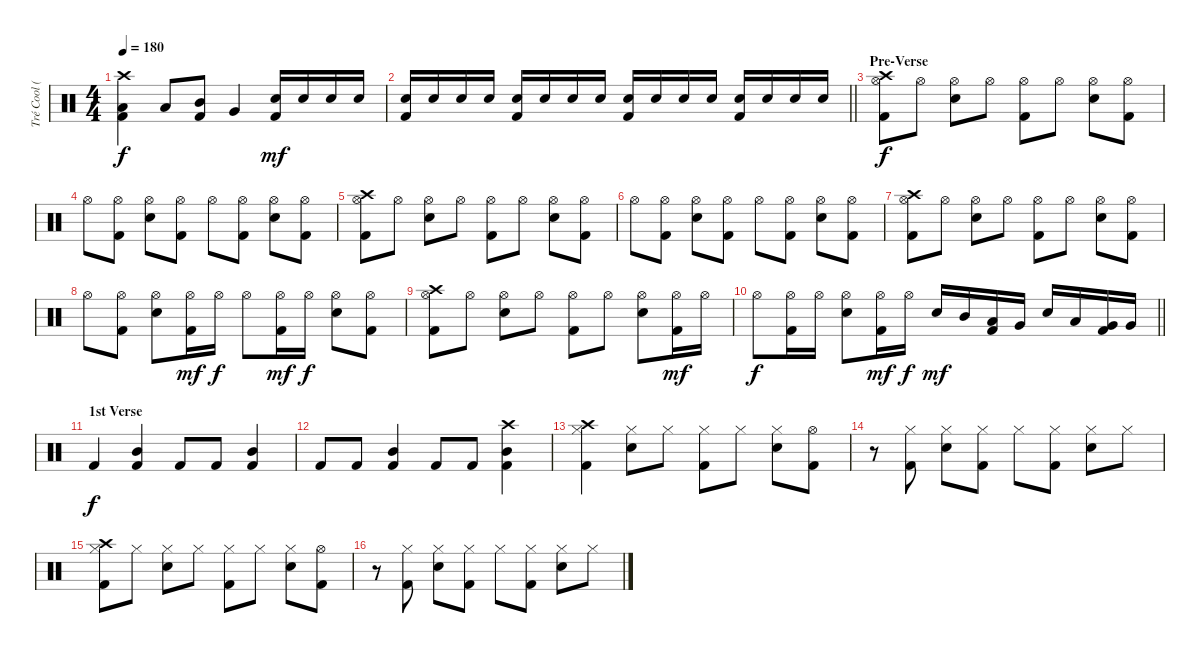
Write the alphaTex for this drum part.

\track ("Tré Cool (Drums)" "Tré Cool (") {instrument percussion}
\staff {score}
\articulation defaults
\ts (4 4)
\tempo 180
\clef neutral
\ks c
("Crash high (hit)" "Low Tom (hit)" "Kick (hit) 2").4{dy f} "Low Tom (hit)".8 ("Mid Tom (hit)" "Kick (hit) 2").8 "Very Low Tom (hit)".4 ("Electric Snare (hit)" "Kick (hit) 2").16{dy mf} "Electric Snare (hit)".16 "Electric Snare (hit)".16 "Electric Snare (hit)".16 |
\barLineRight lightlight
("Electric Snare (hit)" "Kick (hit) 2").16 "Electric Snare (hit)".16 "Electric Snare (hit)".16 "Electric Snare (hit)".16 ("Electric Snare (hit)" "Kick (hit) 2").16 "Electric Snare (hit)".16 "Electric Snare (hit)".16 "Electric Snare (hit)".16 ("Electric Snare (hit)" "Kick (hit) 2").16 "Electric Snare (hit)".16 "Electric Snare (hit)".16 "Electric Snare (hit)".16 ("Electric Snare (hit)" "Kick (hit) 2").16 "Electric Snare (hit)".16 "Electric Snare (hit)".16 "Electric Snare (hit)".16 |
\section ("" "Pre-Verse")
("Crash high (hit)" "Hi-Hat (open)" "Kick (hit) 2").8{dy f} "Hi-Hat (open)".8 ("Hi-Hat (open)" "Electric Snare (hit)").8 "Hi-Hat (open)".8 ("Hi-Hat (open)" "Kick (hit) 2").8 "Hi-Hat (open)".8 ("Hi-Hat (open)" "Electric Snare (hit)").8 ("Hi-Hat (open)" "Kick (hit) 2").8 |
"Hi-Hat (open)".8 ("Hi-Hat (open)" "Kick (hit) 2").8 ("Hi-Hat (open)" "Electric Snare (hit)").8 ("Hi-Hat (open)" "Kick (hit) 2").8 "Hi-Hat (open)".8 ("Hi-Hat (open)" "Kick (hit) 2").8 ("Hi-Hat (open)" "Electric Snare (hit)").8 ("Hi-Hat (open)" "Kick (hit) 2").8 |
("Crash high (hit)" "Hi-Hat (open)" "Kick (hit) 2").8 "Hi-Hat (open)".8 ("Hi-Hat (open)" "Electric Snare (hit)").8 "Hi-Hat (open)".8 ("Hi-Hat (open)" "Kick (hit) 2").8 "Hi-Hat (open)".8 ("Hi-Hat (open)" "Electric Snare (hit)").8 ("Hi-Hat (open)" "Kick (hit) 2").8 |
"Hi-Hat (open)".8 ("Hi-Hat (open)" "Kick (hit) 2").8 ("Hi-Hat (open)" "Electric Snare (hit)").8 ("Hi-Hat (open)" "Kick (hit) 2").8 "Hi-Hat (open)".8 ("Hi-Hat (open)" "Kick (hit) 2").8 ("Hi-Hat (open)" "Electric Snare (hit)").8 ("Hi-Hat (open)" "Kick (hit) 2").8 |
("Crash high (hit)" "Hi-Hat (open)" "Kick (hit) 2").8 "Hi-Hat (open)".8 ("Hi-Hat (open)" "Electric Snare (hit)").8 "Hi-Hat (open)".8 ("Hi-Hat (open)" "Kick (hit) 2").8 "Hi-Hat (open)".8 ("Hi-Hat (open)" "Electric Snare (hit)").8 ("Hi-Hat (open)" "Kick (hit) 2").8 |
"Hi-Hat (open)".8 ("Hi-Hat (open)" "Kick (hit) 2").8 ("Hi-Hat (open)" "Electric Snare (hit)").8 ("Hi-Hat (open)" "Kick (hit) 2").16{dy mf} "Hi-Hat (open)".16{dy f} "Hi-Hat (open)".8 ("Hi-Hat (open)" "Kick (hit) 2").16{dy mf} "Hi-Hat (open)".16{dy f} ("Hi-Hat (open)" "Electric Snare (hit)").8 ("Hi-Hat (open)" "Kick (hit) 2").8 |
("Crash high (hit)" "Hi-Hat (open)" "Kick (hit) 2").8 "Hi-Hat (open)".8 ("Hi-Hat (open)" "Electric Snare (hit)").8 "Hi-Hat (open)".8 ("Hi-Hat (open)" "Kick (hit) 2").8 "Hi-Hat (open)".8 ("Hi-Hat (open)" "Electric Snare (hit)").8 ("Hi-Hat (open)" "Kick (hit) 2").16{dy mf} "Hi-Hat (open)".16 |
\barLineRight lightlight "Hi-Hat (open)".8{dy f}
("Hi-Hat (open)" "Kick (hit) 2").16 "Hi-Hat (open)".16 ("Hi-Hat (open)" "Electric Snare (hit)").8 ("Hi-Hat (open)" "Kick (hit) 2").16{dy mf} "Hi-Hat (open)".16{dy f} "Electric Snare (hit)".16{dy mf} "Mid Tom (hit)".16 ("Low Tom (hit)" "Kick (hit) 2").16 "Very Low Tom (hit)".16 "Electric Snare (hit)".16 "Low Tom (hit)".16 ("Very Low Tom (hit)" "Kick (hit) 2").16 "Very Low Tom (hit)".16 |
\section ("" "1st Verse")
"Kick (hit) 2".4{dy f} ("Mid Tom (hit)" "Kick (hit) 2").4 "Kick (hit) 2".8 "Kick (hit) 2".8 ("Mid Tom (hit)" "Kick (hit) 2").4 |
"Kick (hit) 2".8 "Kick (hit) 2".8 ("Mid Tom (hit)" "Kick (hit) 2").4 "Kick (hit) 2".8 "Kick (hit) 2".8 ("Crash high (hit)" "Mid Tom (hit)" "Kick (hit) 2").4 |
("Crash high (hit)" "Hi-Hat (closed)" "Kick (hit) 2").4 ("Hi-Hat (closed)" "Electric Snare (hit)").8 "Hi-Hat (closed)".8 ("Hi-Hat (closed)" "Kick (hit) 2").8 "Hi-Hat (closed)".8 ("Hi-Hat (closed)" "Electric Snare (hit)").8 ("Hi-Hat (open)" "Kick (hit) 2").8 |
r.8 ("Hi-Hat (closed)" "Kick (hit) 2").8 ("Hi-Hat (closed)" "Electric Snare (hit)").8 ("Hi-Hat (closed)" "Kick (hit) 2").8 "Hi-Hat (closed)".8 ("Hi-Hat (closed)" "Kick (hit) 2").8 ("Hi-Hat (closed)" "Electric Snare (hit)").8 "Hi-Hat (closed)".8 |
("Crash high (hit)" "Hi-Hat (closed)" "Kick (hit) 2").8 "Hi-Hat (closed)".8 ("Hi-Hat (closed)" "Electric Snare (hit)").8 "Hi-Hat (closed)".8 ("Hi-Hat (closed)" "Kick (hit) 2").8 "Hi-Hat (closed)".8 ("Hi-Hat (closed)" "Electric Snare (hit)").8 ("Hi-Hat (open)" "Kick (hit) 2").8 |
r.8 ("Hi-Hat (closed)" "Kick (hit) 2").8 ("Hi-Hat (closed)" "Electric Snare (hit)").8 ("Hi-Hat (closed)" "Kick (hit) 2").8 "Hi-Hat (closed)".8 ("Hi-Hat (closed)" "Kick (hit) 2").8 ("Hi-Hat (closed)" "Electric Snare (hit)").8 "Hi-Hat (closed)".8
